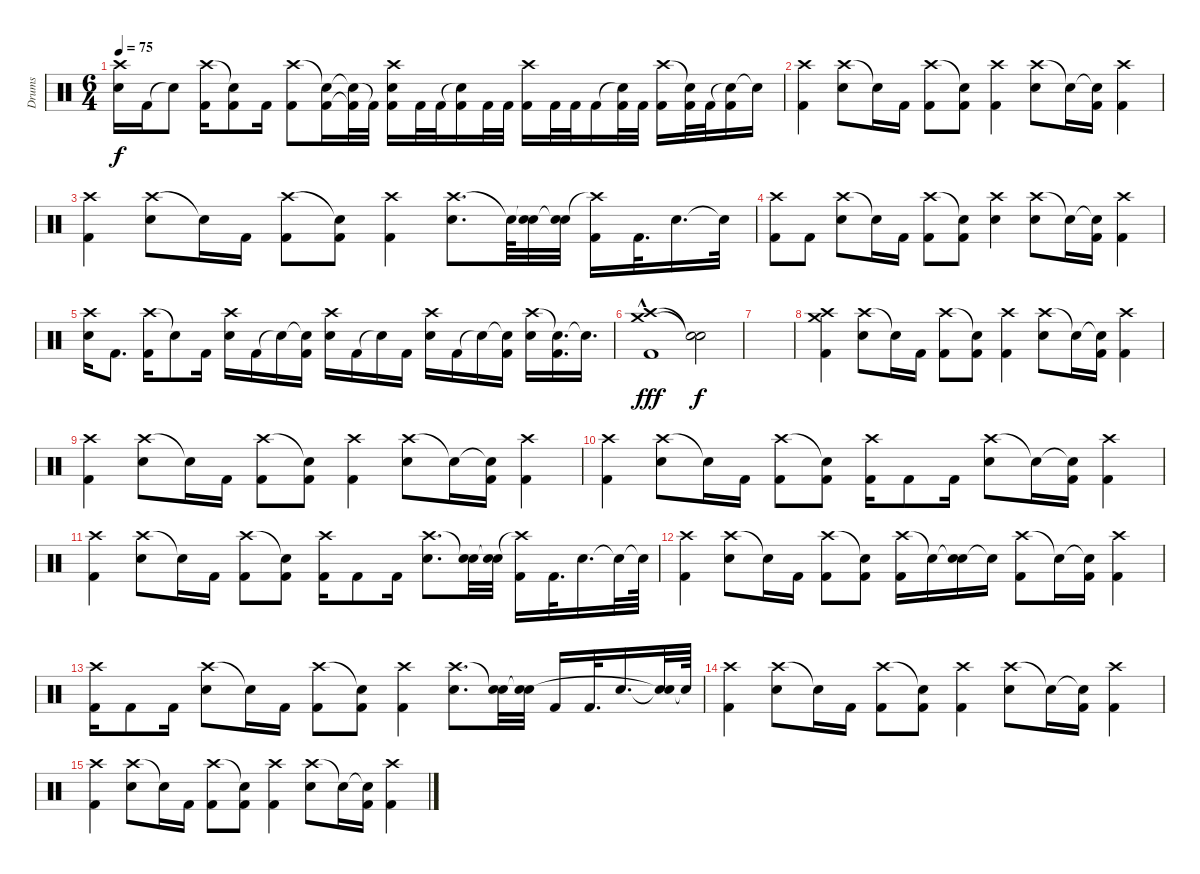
\track ("Drums" "Drums") {instrument percussion}
\staff {score}
\articulation defaults
\ts (6 4)
\tempo 75
\clef neutral
\ks c
("Crash high (hit)" "Snare (hit) 2").16{dy f} "Kick (hit) 2".16 "Snare (hit)"{t}.8 ("Crash high (hit)" "Kick (hit) 2").16 ("Snare (hit)"{t} "Kick (hit) 2").8 "Kick (hit) 2".16 ("Crash high (hit)" "Kick (hit) 2").8 ("Snare (hit)"{t} "Kick (hit) 2").16 ("Snare (hit)"{t} "Kick (hit) 2"{t}).32 "Kick (hit) 2"{t}.32 ("Crash high (hit)" "Snare (hit) 2" "Kick (hit) 2").16 "Kick (hit) 2".32 "Kick (hit) 2".32 ("Snare (hit)"{t} "Kick (hit) 2").16 "Kick (hit) 2".32 "Kick (hit) 2".32 ("Crash high (hit)" "Kick (hit) 2").16 "Kick (hit) 2".32 "Kick (hit) 2".32 "Kick (hit) 2".16 ("Snare (hit)"{t} "Kick (hit) 2").32 "Kick (hit) 2".32 ("Crash high (hit)" "Kick (hit) 2").16 ("Snare (hit)"{t} "Kick (hit) 2").32 "Kick (hit) 2".32 ("Snare (hit)"{t} "Kick (hit) 2").16 "Snare (hit)"{t}.16 |
("Crash high (hit)" "Kick (hit) 2").4 ("Crash high (hit)" "Snare (hit) 2").8 "Snare (hit)"{t}.16 "Kick (hit) 2".16 ("Crash high (hit)" "Kick (hit) 2").8 ("Snare (hit)"{t} "Kick (hit) 2").8 ("Crash high (hit)" "Kick (hit) 2").4 ("Crash high (hit)" "Snare (hit) 2").8 "Snare (hit)"{t}.16 ("Snare (hit)"{t} "Kick (hit) 2").16 ("Crash high (hit)" "Kick (hit) 2").4 |
("Crash high (hit)" "Kick (hit) 2").4 ("Crash high (hit)" "Snare (hit) 2").8 "Snare (hit)"{t}.16 "Kick (hit) 2".16 ("Crash high (hit)" "Kick (hit) 2").8 ("Snare (hit)"{t} "Kick (hit) 2").8 ("Crash high (hit)" "Kick (hit) 2").4 ("Crash high (hit)" "Snare (hit) 2").8{d} "Snare (hit)"{t}.64 ("Snare (hit)"{t} "Snare (hit) 2").32 ("Snare (hit)"{t} "Snare (hit) 2").32 ("Crash high (hit)"{t} "Kick (hit) 2").16 "Kick (hit) 2".32{d} "Snare (hit) 2".16{d} "Snare (hit)"{t}.32 |
("Crash high (hit)" "Kick (hit) 2").8 "Kick (hit) 2".8 ("Crash high (hit)" "Snare (hit) 2").8 "Snare (hit)"{t}.16 "Kick (hit) 2".16 ("Crash high (hit)" "Kick (hit) 2").8 ("Snare (hit)"{t} "Kick (hit) 2").8 ("Crash high (hit)" "Snare (hit) 2").4 ("Crash high (hit)" "Snare (hit) 2").8 "Snare (hit)"{t}.16 ("Snare (hit)"{t} "Kick (hit) 2").16 ("Crash high (hit)" "Kick (hit) 2").4 |
("Crash high (hit)" "Snare (hit) 2").16 "Kick (hit) 2".8{d} ("Crash high (hit)" "Kick (hit) 2").16 "Snare (hit)"{t}.8 "Kick (hit) 2".16 ("Crash high (hit)" "Snare (hit) 2").16 "Kick (hit) 2".16 "Snare (hit)"{t}.16 ("Snare (hit)"{t} "Kick (hit) 2").16 ("Crash high (hit)" "Snare (hit) 2").16 "Kick (hit) 2".16 "Snare (hit)"{t}.16 "Kick (hit) 2".16 ("Crash high (hit)" "Snare (hit) 2").16 "Kick (hit) 2".16 "Snare (hit)"{t}.16 ("Snare (hit)"{t} "Kick (hit) 2").16 ("Crash high (hit)" "Snare (hit) 2").16 ("Snare (hit)"{t} "Kick (hit) 2").16{d} "Snare (hit)"{t}.16{d} |
("Crash high (hit)"{hac} "Crash medium (hit)"{hac} "Kick (hit) 2"{hac}).1{dy fff} ("Snare (hit)"{t} "Snare (hit)"{t}).2{dy f} |
|
("Crash high (hit)" "Crash medium (hit)" "Kick (hit) 2").4 ("Crash high (hit)" "Snare (hit) 2").8 "Snare (hit)"{t}.16 "Kick (hit) 2".16 ("Crash high (hit)" "Kick (hit) 2").8 ("Snare (hit)"{t} "Kick (hit) 2").8 ("Crash high (hit)" "Kick (hit) 2").4 ("Crash high (hit)" "Snare (hit) 2").8 "Snare (hit)"{t}.16 ("Snare (hit)"{t} "Kick (hit) 2").16 ("Crash high (hit)" "Kick (hit) 2").4 |
("Crash high (hit)" "Kick (hit) 2").4 ("Crash high (hit)" "Snare (hit) 2").8 "Snare (hit)"{t}.16 "Kick (hit) 2".16 ("Crash high (hit)" "Kick (hit) 2").8 ("Snare (hit)"{t} "Kick (hit) 2").8 ("Crash high (hit)" "Kick (hit) 2").4 ("Crash high (hit)" "Snare (hit) 2").8 "Snare (hit)"{t}.16 ("Snare (hit)"{t} "Kick (hit) 2").16 ("Crash high (hit)" "Kick (hit) 2").4 |
("Crash high (hit)" "Kick (hit) 2").4 ("Crash high (hit)" "Snare (hit) 2").8 "Snare (hit)"{t}.16 "Kick (hit) 2".16 ("Crash high (hit)" "Kick (hit) 2").8 ("Snare (hit)"{t} "Kick (hit) 2").8 ("Crash high (hit)" "Kick (hit) 2").16 "Kick (hit) 2".8 "Kick (hit) 2".16 ("Crash high (hit)" "Snare (hit) 2").8 "Snare (hit)"{t}.16 ("Snare (hit)"{t} "Kick (hit) 2").16 ("Crash high (hit)" "Kick (hit) 2").4 |
("Crash high (hit)" "Kick (hit) 2").4 ("Crash high (hit)" "Snare (hit) 2").8 "Snare (hit)"{t}.16 "Kick (hit) 2".16 ("Crash high (hit)" "Kick (hit) 2").8 ("Snare (hit)"{t} "Kick (hit) 2").8 ("Crash high (hit)" "Kick (hit) 2").16 "Kick (hit) 2".8 "Kick (hit) 2".16 ("Crash high (hit)" "Snare (hit) 2").8{d} ("Snare (hit)"{t} "Snare (hit) 2").32 ("Snare (hit)"{t} "Snare (hit) 2").32 ("Crash high (hit)"{t} "Kick (hit) 2").16 "Kick (hit) 2".32{d} "Snare (hit) 2".16{d} "Snare (hit)"{t}.32 "Snare (hit)"{t}.64 |
("Crash high (hit)" "Kick (hit) 2").4 ("Crash high (hit)" "Snare (hit) 2").8 "Snare (hit)"{t}.16 "Kick (hit) 2".16 ("Crash high (hit)" "Kick (hit) 2").8 ("Snare (hit)"{t} "Kick (hit) 2").8 ("Crash high (hit)" "Kick (hit) 2").16 "Snare (hit)"{t}.16 ("Snare (hit)"{t} "Snare (hit) 2").16 "Snare (hit)"{t}.16 ("Crash high (hit)" "Kick (hit) 2").8 "Snare (hit)"{t}.16 ("Snare (hit)"{t} "Kick (hit) 2").16 ("Crash high (hit)" "Kick (hit) 2").4 |
("Crash high (hit)" "Kick (hit) 2").16{volume 0} "Kick (hit) 2".8 "Kick (hit) 2".16 ("Crash high (hit)" "Snare (hit) 2").8 "Snare (hit)"{t}.16 "Kick (hit) 2".16 ("Crash high (hit)" "Kick (hit) 2").8 ("Snare (hit)"{t} "Kick (hit) 2").8 ("Crash high (hit)" "Kick (hit) 2").4 ("Crash high (hit)" "Snare (hit) 2").8{d} ("Snare (hit)"{t} "Snare (hit) 2").32 ("Snare (hit)"{t} "Snare (hit) 2").32 "Kick (hit) 2".16 "Kick (hit) 2".32{d} "Snare (hit) 2".16{d} ("Snare (hit)"{t} "Snare (hit)"{t}).32 "Snare (hit)"{t}.64 |
("Crash high (hit)" "Kick (hit) 2").4 ("Crash high (hit)" "Snare (hit) 2").8 "Snare (hit)"{t}.16 "Kick (hit) 2".16 ("Crash high (hit)" "Kick (hit) 2").8 ("Snare (hit)"{t} "Kick (hit) 2").8 ("Crash high (hit)" "Kick (hit) 2").4 ("Crash high (hit)" "Snare (hit) 2").8 "Snare (hit)"{t}.16 ("Snare (hit)"{t} "Kick (hit) 2").16 ("Crash high (hit)" "Kick (hit) 2").4 |
("Crash high (hit)" "Kick (hit) 2").4 ("Crash high (hit)" "Snare (hit) 2").8 "Snare (hit)"{t}.16 "Kick (hit) 2".16 ("Crash high (hit)" "Kick (hit) 2").8 ("Snare (hit)"{t} "Kick (hit) 2").8 ("Crash high (hit)" "Kick (hit) 2").4 ("Crash high (hit)" "Snare (hit) 2").8 "Snare (hit)"{t}.16 ("Snare (hit)"{t} "Kick (hit) 2").16 ("Crash high (hit)" "Kick (hit) 2").4
